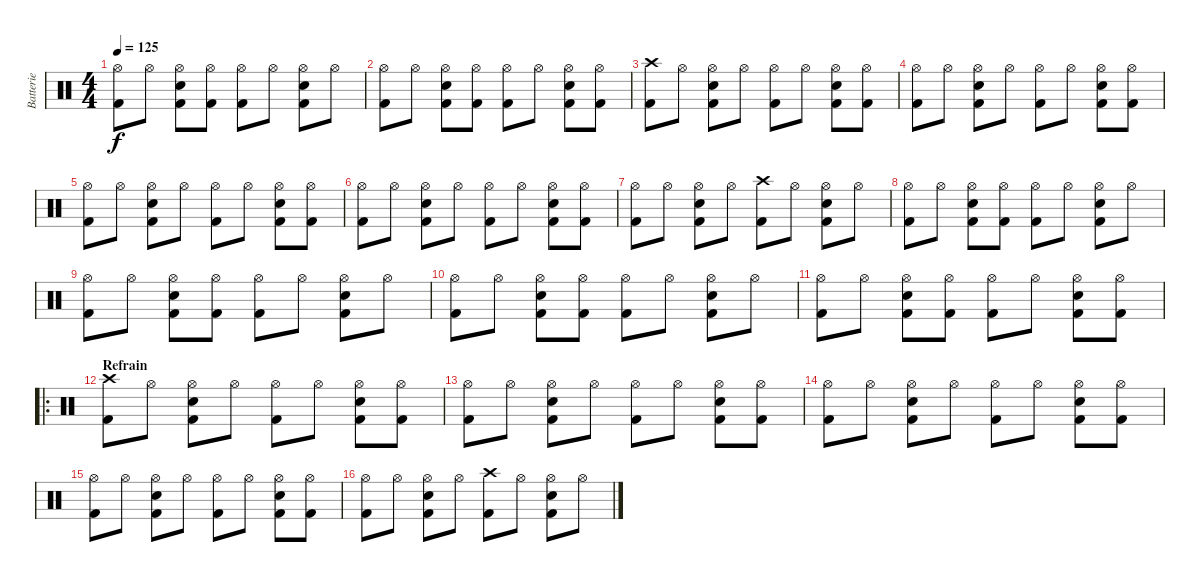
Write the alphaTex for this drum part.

\track ("Batterie" "Batterie") {instrument percussion}
\staff {score}
\articulation defaults
\ts (4 4)
\tempo 125
\clef neutral
\ks c
("Hi-Hat (open)" "Kick (hit) 2").8{dy f} "Hi-Hat (open)".8 ("Hi-Hat (open)" "Kick (hit) 2" "Electric Snare (hit)").8 ("Hi-Hat (open)" "Kick (hit) 2").8 ("Hi-Hat (open)" "Kick (hit) 2").8 "Hi-Hat (open)".8 ("Hi-Hat (open)" "Kick (hit) 2" "Electric Snare (hit)").8 "Hi-Hat (open)".8 |
("Hi-Hat (open)" "Kick (hit) 2").8 "Hi-Hat (open)".8 ("Hi-Hat (open)" "Kick (hit) 2" "Electric Snare (hit)").8 ("Hi-Hat (open)" "Kick (hit) 2").8 ("Hi-Hat (open)" "Kick (hit) 2").8 "Hi-Hat (open)".8 ("Hi-Hat (open)" "Kick (hit) 2" "Electric Snare (hit)").8 ("Hi-Hat (open)" "Kick (hit) 2").8 |
("Kick (hit) 2" "Crash high (hit)").8 "Hi-Hat (open)".8 ("Hi-Hat (open)" "Kick (hit) 2" "Electric Snare (hit)").8 "Hi-Hat (open)".8 ("Hi-Hat (open)" "Kick (hit) 2").8 "Hi-Hat (open)".8 ("Hi-Hat (open)" "Kick (hit) 2" "Electric Snare (hit)").8 ("Hi-Hat (open)" "Kick (hit) 2").8 |
("Hi-Hat (open)" "Kick (hit) 2").8 "Hi-Hat (open)".8 ("Hi-Hat (open)" "Kick (hit) 2" "Electric Snare (hit)").8 "Hi-Hat (open)".8 ("Hi-Hat (open)" "Kick (hit) 2").8 "Hi-Hat (open)".8 ("Hi-Hat (open)" "Kick (hit) 2" "Electric Snare (hit)").8 ("Hi-Hat (open)" "Kick (hit) 2").8 |
("Hi-Hat (open)" "Kick (hit) 2").8 "Hi-Hat (open)".8 ("Hi-Hat (open)" "Kick (hit) 2" "Electric Snare (hit)").8 "Hi-Hat (open)".8 ("Hi-Hat (open)" "Kick (hit) 2").8 "Hi-Hat (open)".8 ("Hi-Hat (open)" "Kick (hit) 2" "Electric Snare (hit)").8 ("Hi-Hat (open)" "Kick (hit) 2").8 |
("Hi-Hat (open)" "Kick (hit) 2").8 "Hi-Hat (open)".8 ("Hi-Hat (open)" "Kick (hit) 2" "Electric Snare (hit)").8 "Hi-Hat (open)".8 ("Hi-Hat (open)" "Kick (hit) 2").8 "Hi-Hat (open)".8 ("Hi-Hat (open)" "Kick (hit) 2" "Electric Snare (hit)").8 ("Hi-Hat (open)" "Kick (hit) 2").8 |
("Hi-Hat (open)" "Kick (hit) 2").8 "Hi-Hat (open)".8 ("Hi-Hat (open)" "Kick (hit) 2" "Electric Snare (hit)").8 "Hi-Hat (open)".8 ("Kick (hit) 2" "Crash high (hit)").8 "Hi-Hat (open)".8 ("Hi-Hat (open)" "Kick (hit) 2" "Electric Snare (hit)").8 "Hi-Hat (open)".8 |
("Hi-Hat (open)" "Kick (hit) 2").8 "Hi-Hat (open)".8 ("Hi-Hat (open)" "Kick (hit) 2" "Electric Snare (hit)").8 ("Hi-Hat (open)" "Kick (hit) 2").8 ("Hi-Hat (open)" "Kick (hit) 2").8 "Hi-Hat (open)".8 ("Hi-Hat (open)" "Kick (hit) 2" "Electric Snare (hit)").8 "Hi-Hat (open)".8 |
("Hi-Hat (open)" "Kick (hit) 2").8 "Hi-Hat (open)".8 ("Hi-Hat (open)" "Kick (hit) 2" "Electric Snare (hit)").8 ("Hi-Hat (open)" "Kick (hit) 2").8 ("Hi-Hat (open)" "Kick (hit) 2").8 "Hi-Hat (open)".8 ("Hi-Hat (open)" "Kick (hit) 2" "Electric Snare (hit)").8 "Hi-Hat (open)".8 |
("Hi-Hat (open)" "Kick (hit) 2").8 "Hi-Hat (open)".8 ("Hi-Hat (open)" "Kick (hit) 2" "Electric Snare (hit)").8 ("Hi-Hat (open)" "Kick (hit) 2").8 ("Hi-Hat (open)" "Kick (hit) 2").8 "Hi-Hat (open)".8 ("Hi-Hat (open)" "Kick (hit) 2" "Electric Snare (hit)").8 "Hi-Hat (open)".8 |
("Hi-Hat (open)" "Kick (hit) 2").8 "Hi-Hat (open)".8 ("Hi-Hat (open)" "Kick (hit) 2" "Electric Snare (hit)").8 ("Hi-Hat (open)" "Kick (hit) 2").8 ("Hi-Hat (open)" "Kick (hit) 2").8 "Hi-Hat (open)".8 ("Hi-Hat (open)" "Kick (hit) 2" "Electric Snare (hit)").8 ("Hi-Hat (open)" "Kick (hit) 2").8 |
\ro
\section ("" "Refrain")
("Kick (hit) 2" "Crash high (hit)").8 "Hi-Hat (open)".8 ("Hi-Hat (open)" "Kick (hit) 2" "Electric Snare (hit)").8 "Hi-Hat (open)".8 ("Hi-Hat (open)" "Kick (hit) 2").8 "Hi-Hat (open)".8 ("Hi-Hat (open)" "Kick (hit) 2" "Electric Snare (hit)").8 ("Hi-Hat (open)" "Kick (hit) 2").8 |
("Hi-Hat (open)" "Kick (hit) 2").8 "Hi-Hat (open)".8 ("Hi-Hat (open)" "Kick (hit) 2" "Electric Snare (hit)").8 "Hi-Hat (open)".8 ("Hi-Hat (open)" "Kick (hit) 2").8 "Hi-Hat (open)".8 ("Hi-Hat (open)" "Kick (hit) 2" "Electric Snare (hit)").8 ("Hi-Hat (open)" "Kick (hit) 2").8 |
("Hi-Hat (open)" "Kick (hit) 2").8 "Hi-Hat (open)".8 ("Hi-Hat (open)" "Kick (hit) 2" "Electric Snare (hit)").8 "Hi-Hat (open)".8 ("Hi-Hat (open)" "Kick (hit) 2").8 "Hi-Hat (open)".8 ("Hi-Hat (open)" "Kick (hit) 2" "Electric Snare (hit)").8 ("Hi-Hat (open)" "Kick (hit) 2").8 |
("Hi-Hat (open)" "Kick (hit) 2").8 "Hi-Hat (open)".8 ("Hi-Hat (open)" "Kick (hit) 2" "Electric Snare (hit)").8 "Hi-Hat (open)".8 ("Hi-Hat (open)" "Kick (hit) 2").8 "Hi-Hat (open)".8 ("Hi-Hat (open)" "Kick (hit) 2" "Electric Snare (hit)").8 ("Hi-Hat (open)" "Kick (hit) 2").8 |
("Hi-Hat (open)" "Kick (hit) 2").8 "Hi-Hat (open)".8 ("Hi-Hat (open)" "Kick (hit) 2" "Electric Snare (hit)").8 "Hi-Hat (open)".8 ("Kick (hit) 2" "Crash high (hit)").8 "Hi-Hat (open)".8 ("Hi-Hat (open)" "Kick (hit) 2" "Electric Snare (hit)").8 "Hi-Hat (open)".8
